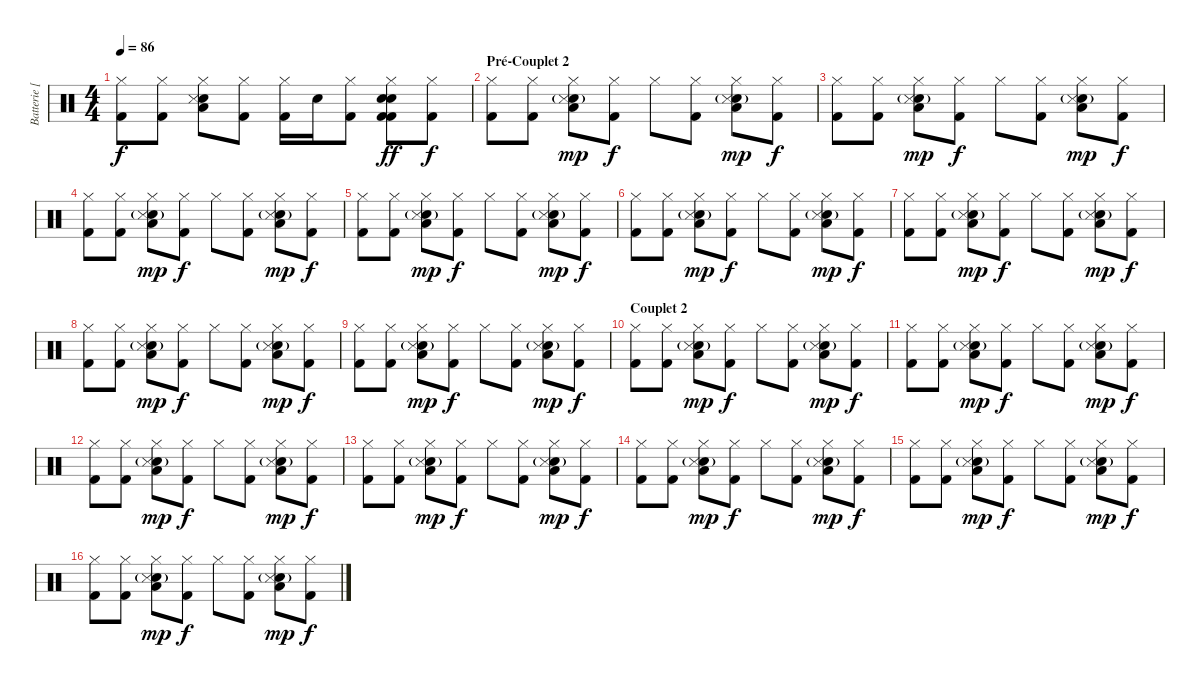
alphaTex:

\track ("Batterie [Dominic Howard]" "Batterie [") {instrument percussion}
\staff {score}
\articulation defaults
\ts (4 4)
\tempo 86
\clef neutral
\ks c
("Hi-Hat (closed)" "Kick (hit) 2").8{dy f} ("Hi-Hat (closed)" "Kick (hit) 2").8 ("Hi-Hat (closed)" "Low Tom (hit)" "Electric Snare (hit)" "Snare (side stick) 3").8 ("Hi-Hat (closed)" "Kick (hit) 2").8 ("Hi-Hat (closed)" "Kick (hit) 2").16 "Electric Snare (hit)".16 ("Hi-Hat (closed)" "Kick (hit) 2").8 ("Hi-Hat (closed)" "Electric Snare (hit)" "Kick (hit) 2" "Electric Snare (hit)" "Kick (hit) 2").8{dy ff} ("Hi-Hat (closed)" "Kick (hit) 2").8{dy f} |
\section ("" "Pré-Couplet 2")
("Hi-Hat (closed)" "Kick (hit) 2").8 ("Hi-Hat (closed)" "Kick (hit) 2").8 ("Hi-Hat (closed)" "Low Tom (hit)" "Electric Snare (hit)"{g} "Snare (side stick) 3").8{dy mp} ("Hi-Hat (closed)" "Kick (hit) 2").8{dy f} "Hi-Hat (closed)".8 ("Hi-Hat (closed)" "Kick (hit) 2").8 ("Hi-Hat (closed)" "Low Tom (hit)" "Electric Snare (hit)"{g} "Snare (side stick) 3").8{dy mp} ("Hi-Hat (closed)" "Kick (hit) 2").8{dy f} |
("Hi-Hat (closed)" "Kick (hit) 2").8 ("Hi-Hat (closed)" "Kick (hit) 2").8 ("Hi-Hat (closed)" "Low Tom (hit)" "Electric Snare (hit)"{g} "Snare (side stick) 3").8{dy mp} ("Hi-Hat (closed)" "Kick (hit) 2").8{dy f} "Hi-Hat (closed)".8 ("Hi-Hat (closed)" "Kick (hit) 2").8 ("Hi-Hat (closed)" "Low Tom (hit)" "Electric Snare (hit)"{g} "Snare (side stick) 3").8{dy mp} ("Hi-Hat (closed)" "Kick (hit) 2").8{dy f} |
("Hi-Hat (closed)" "Kick (hit) 2").8 ("Hi-Hat (closed)" "Kick (hit) 2").8 ("Hi-Hat (closed)" "Low Tom (hit)" "Electric Snare (hit)"{g} "Snare (side stick) 3").8{dy mp} ("Hi-Hat (closed)" "Kick (hit) 2").8{dy f} "Hi-Hat (closed)".8 ("Hi-Hat (closed)" "Kick (hit) 2").8 ("Hi-Hat (closed)" "Low Tom (hit)" "Electric Snare (hit)"{g} "Snare (side stick) 3").8{dy mp} ("Hi-Hat (closed)" "Kick (hit) 2").8{dy f} |
("Hi-Hat (closed)" "Kick (hit) 2").8 ("Hi-Hat (closed)" "Kick (hit) 2").8 ("Hi-Hat (closed)" "Low Tom (hit)" "Electric Snare (hit)"{g} "Snare (side stick) 3").8{dy mp} ("Hi-Hat (closed)" "Kick (hit) 2").8{dy f} "Hi-Hat (closed)".8 ("Hi-Hat (closed)" "Kick (hit) 2").8 ("Hi-Hat (closed)" "Low Tom (hit)" "Electric Snare (hit)"{g} "Snare (side stick) 3").8{dy mp} ("Hi-Hat (closed)" "Kick (hit) 2").8{dy f} |
("Hi-Hat (closed)" "Kick (hit) 2").8 ("Hi-Hat (closed)" "Kick (hit) 2").8 ("Hi-Hat (closed)" "Low Tom (hit)" "Electric Snare (hit)"{g} "Snare (side stick) 3").8{dy mp} ("Hi-Hat (closed)" "Kick (hit) 2").8{dy f} "Hi-Hat (closed)".8 ("Hi-Hat (closed)" "Kick (hit) 2").8 ("Hi-Hat (closed)" "Low Tom (hit)" "Electric Snare (hit)"{g} "Snare (side stick) 3").8{dy mp} ("Hi-Hat (closed)" "Kick (hit) 2").8{dy f} |
("Hi-Hat (closed)" "Kick (hit) 2").8 ("Hi-Hat (closed)" "Kick (hit) 2").8 ("Hi-Hat (closed)" "Low Tom (hit)" "Electric Snare (hit)"{g} "Snare (side stick) 3").8{dy mp} ("Hi-Hat (closed)" "Kick (hit) 2").8{dy f} "Hi-Hat (closed)".8 ("Hi-Hat (closed)" "Kick (hit) 2").8 ("Hi-Hat (closed)" "Low Tom (hit)" "Electric Snare (hit)"{g} "Snare (side stick) 3").8{dy mp} ("Hi-Hat (closed)" "Kick (hit) 2").8{dy f} |
("Hi-Hat (closed)" "Kick (hit) 2").8 ("Hi-Hat (closed)" "Kick (hit) 2").8 ("Hi-Hat (closed)" "Low Tom (hit)" "Electric Snare (hit)"{g} "Snare (side stick) 3").8{dy mp} ("Hi-Hat (closed)" "Kick (hit) 2").8{dy f} "Hi-Hat (closed)".8 ("Hi-Hat (closed)" "Kick (hit) 2").8 ("Hi-Hat (closed)" "Low Tom (hit)" "Electric Snare (hit)"{g} "Snare (side stick) 3").8{dy mp} ("Hi-Hat (closed)" "Kick (hit) 2").8{dy f} |
("Hi-Hat (closed)" "Kick (hit) 2").8 ("Hi-Hat (closed)" "Kick (hit) 2").8 ("Hi-Hat (closed)" "Low Tom (hit)" "Electric Snare (hit)"{g} "Snare (side stick) 3").8{dy mp} ("Hi-Hat (closed)" "Kick (hit) 2").8{dy f} "Hi-Hat (closed)".8 ("Hi-Hat (closed)" "Kick (hit) 2").8 ("Hi-Hat (closed)" "Low Tom (hit)" "Electric Snare (hit)"{g} "Snare (side stick) 3").8{dy mp} ("Hi-Hat (closed)" "Kick (hit) 2").8{dy f} |
\section ("" "Couplet 2")
("Hi-Hat (closed)" "Kick (hit) 2").8 ("Hi-Hat (closed)" "Kick (hit) 2").8 ("Hi-Hat (closed)" "Low Tom (hit)" "Electric Snare (hit)"{g} "Snare (side stick) 3").8{dy mp} ("Hi-Hat (closed)" "Kick (hit) 2").8{dy f} "Hi-Hat (closed)".8 ("Hi-Hat (closed)" "Kick (hit) 2").8 ("Hi-Hat (closed)" "Low Tom (hit)" "Electric Snare (hit)"{g} "Snare (side stick) 3").8{dy mp} ("Hi-Hat (closed)" "Kick (hit) 2").8{dy f} |
("Hi-Hat (closed)" "Kick (hit) 2").8 ("Hi-Hat (closed)" "Kick (hit) 2").8 ("Hi-Hat (closed)" "Low Tom (hit)" "Electric Snare (hit)"{g} "Snare (side stick) 3").8{dy mp} ("Hi-Hat (closed)" "Kick (hit) 2").8{dy f} "Hi-Hat (closed)".8 ("Hi-Hat (closed)" "Kick (hit) 2").8 ("Hi-Hat (closed)" "Low Tom (hit)" "Electric Snare (hit)"{g} "Snare (side stick) 3").8{dy mp} ("Hi-Hat (closed)" "Kick (hit) 2").8{dy f} |
("Hi-Hat (closed)" "Kick (hit) 2").8 ("Hi-Hat (closed)" "Kick (hit) 2").8 ("Hi-Hat (closed)" "Low Tom (hit)" "Electric Snare (hit)"{g} "Snare (side stick) 3").8{dy mp} ("Hi-Hat (closed)" "Kick (hit) 2").8{dy f} "Hi-Hat (closed)".8 ("Hi-Hat (closed)" "Kick (hit) 2").8 ("Hi-Hat (closed)" "Low Tom (hit)" "Electric Snare (hit)"{g} "Snare (side stick) 3").8{dy mp} ("Hi-Hat (closed)" "Kick (hit) 2").8{dy f} |
("Hi-Hat (closed)" "Kick (hit) 2").8 ("Hi-Hat (closed)" "Kick (hit) 2").8 ("Hi-Hat (closed)" "Low Tom (hit)" "Electric Snare (hit)"{g} "Snare (side stick) 3").8{dy mp} ("Hi-Hat (closed)" "Kick (hit) 2").8{dy f} "Hi-Hat (closed)".8 ("Hi-Hat (closed)" "Kick (hit) 2").8 ("Hi-Hat (closed)" "Low Tom (hit)" "Electric Snare (hit)"{g} "Snare (side stick) 3").8{dy mp} ("Hi-Hat (closed)" "Kick (hit) 2").8{dy f} |
("Hi-Hat (closed)" "Kick (hit) 2").8 ("Hi-Hat (closed)" "Kick (hit) 2").8 ("Hi-Hat (closed)" "Low Tom (hit)" "Electric Snare (hit)"{g} "Snare (side stick) 3").8{dy mp} ("Hi-Hat (closed)" "Kick (hit) 2").8{dy f} "Hi-Hat (closed)".8 ("Hi-Hat (closed)" "Kick (hit) 2").8 ("Hi-Hat (closed)" "Low Tom (hit)" "Electric Snare (hit)"{g} "Snare (side stick) 3").8{dy mp} ("Hi-Hat (closed)" "Kick (hit) 2").8{dy f} |
("Hi-Hat (closed)" "Kick (hit) 2").8 ("Hi-Hat (closed)" "Kick (hit) 2").8 ("Hi-Hat (closed)" "Low Tom (hit)" "Electric Snare (hit)"{g} "Snare (side stick) 3").8{dy mp} ("Hi-Hat (closed)" "Kick (hit) 2").8{dy f} "Hi-Hat (closed)".8 ("Hi-Hat (closed)" "Kick (hit) 2").8 ("Hi-Hat (closed)" "Low Tom (hit)" "Electric Snare (hit)"{g} "Snare (side stick) 3").8{dy mp} ("Hi-Hat (closed)" "Kick (hit) 2").8{dy f} |
("Hi-Hat (closed)" "Kick (hit) 2").8 ("Hi-Hat (closed)" "Kick (hit) 2").8 ("Hi-Hat (closed)" "Low Tom (hit)" "Electric Snare (hit)"{g} "Snare (side stick) 3").8{dy mp} ("Hi-Hat (closed)" "Kick (hit) 2").8{dy f} "Hi-Hat (closed)".8 ("Hi-Hat (closed)" "Kick (hit) 2").8 ("Hi-Hat (closed)" "Low Tom (hit)" "Electric Snare (hit)"{g} "Snare (side stick) 3").8{dy mp} ("Hi-Hat (closed)" "Kick (hit) 2").8{dy f}
